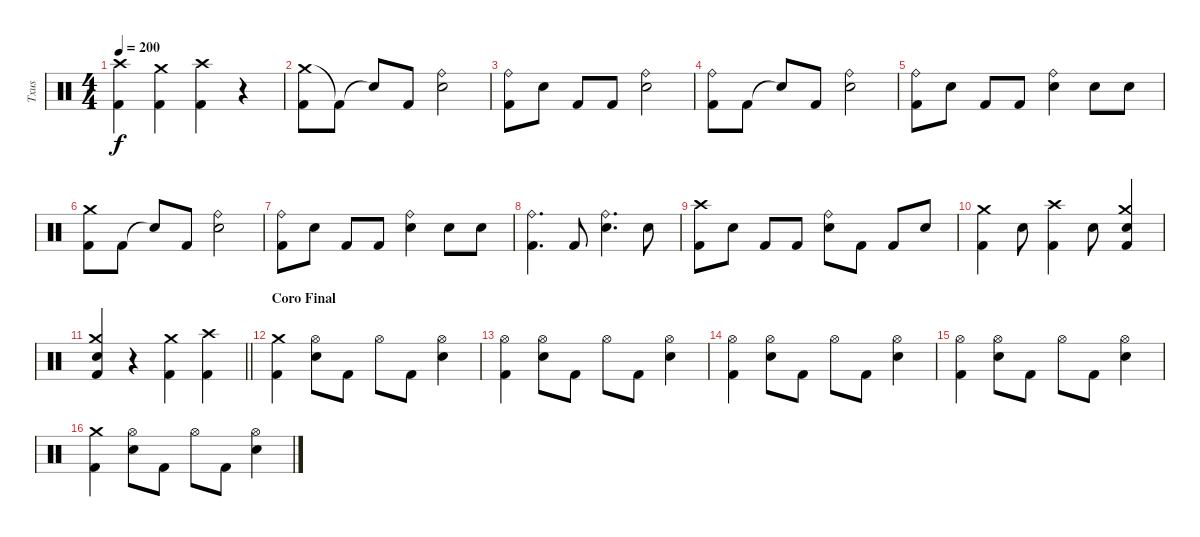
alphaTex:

\track ("Txus" "Txus") {instrument percussion}
\staff {score}
\articulation defaults
\ts (4 4)
\tempo 200
\clef neutral
\ks c
("Crash high (hit)" "Kick (hit) 2").4{dy f} ("Crash medium (hit)" "Kick (hit) 2").4 ("Crash high (hit)" "Kick (hit) 2").4 r.4 |
("Crash medium (hit)" "Kick (hit) 2").8 "Kick (hit) 2"{t}.8 "Snare (hit)"{t}.8 "Kick (hit) 2".8 ("Ride (bell)" "Snare (hit) 2").2 |
("Ride (bell)" "Kick (hit) 2").8 "Snare (hit) 2".8 "Kick (hit) 2".8 "Kick (hit) 2".8 ("Ride (bell)" "Snare (hit) 2").2 |
("Ride (bell)" "Kick (hit) 2").8 "Kick (hit) 2".8 "Snare (hit)"{t}.8 "Kick (hit) 2".8 ("Ride (bell)" "Snare (hit) 2").2 |
("Ride (bell)" "Kick (hit) 2").8 "Snare (hit) 2".8 "Kick (hit) 2".8 "Kick (hit) 2".8 ("Ride (bell)" "Snare (hit) 2").4 "Snare (hit) 2".8 "Snare (hit) 2".8 |
("Crash medium (hit)" "Kick (hit) 2").8 "Kick (hit) 2".8 "Snare (hit)"{t}.8 "Kick (hit) 2".8 ("Ride (bell)" "Snare (hit) 2").2 |
("Ride (bell)" "Kick (hit) 2").8 "Snare (hit) 2".8 "Kick (hit) 2".8 "Kick (hit) 2".8 ("Ride (bell)" "Snare (hit) 2").4 "Snare (hit) 2".8 "Snare (hit) 2".8 |
("Ride (bell)" "Kick (hit) 2").4{d} "Kick (hit) 2".8 ("Ride (bell)" "Snare (hit) 2").4{d} "Snare (hit) 2".8 |
("Crash high (hit)" "Kick (hit) 2").8 "Snare (hit) 2".8 "Kick (hit) 2".8 "Kick (hit) 2".8 ("Ride (bell)" "Snare (hit) 2").8 "Kick (hit) 2".8 "Kick (hit) 2".8 "Snare (hit) 2".8 |
("Crash medium (hit)" "Kick (hit) 2").4 "Snare (hit) 2".8 ("Crash high (hit)" "Kick (hit) 2").4 "Snare (hit) 2".8 ("Crash medium (hit)" "Snare (hit) 2" "Kick (hit) 2").4 |
\barLineRight lightlight
("Crash medium (hit)" "Snare (hit) 2" "Kick (hit) 2").4 r.4 ("Crash medium (hit)" "Kick (hit) 2").4 ("Crash high (hit)" "Kick (hit) 2").4 |
\section ("" "Coro Final")
("Crash medium (hit)" "Kick (hit) 2").4 ("Hi-Hat (open)" "Snare (hit) 2").8 "Kick (hit) 2".8 "Hi-Hat (open)".8 "Kick (hit) 2".8 ("Hi-Hat (open)" "Snare (hit) 2").4 |
("Hi-Hat (open)" "Kick (hit) 2").4 ("Hi-Hat (open)" "Snare (hit) 2").8 "Kick (hit) 2".8 "Hi-Hat (open)".8 "Kick (hit) 2".8 ("Hi-Hat (open)" "Snare (hit) 2").4 |
("Hi-Hat (open)" "Kick (hit) 2").4 ("Hi-Hat (open)" "Snare (hit) 2").8 "Kick (hit) 2".8 "Hi-Hat (open)".8 "Kick (hit) 2".8 ("Hi-Hat (open)" "Snare (hit) 2").4 |
("Hi-Hat (open)" "Kick (hit) 2").4 ("Hi-Hat (open)" "Snare (hit) 2").8 "Kick (hit) 2".8 "Hi-Hat (open)".8 "Kick (hit) 2".8 ("Hi-Hat (open)" "Snare (hit) 2").4 |
("Crash medium (hit)" "Kick (hit) 2").4 ("Hi-Hat (open)" "Snare (hit) 2").8 "Kick (hit) 2".8 "Hi-Hat (open)".8 "Kick (hit) 2".8 ("Hi-Hat (open)" "Snare (hit) 2").4
